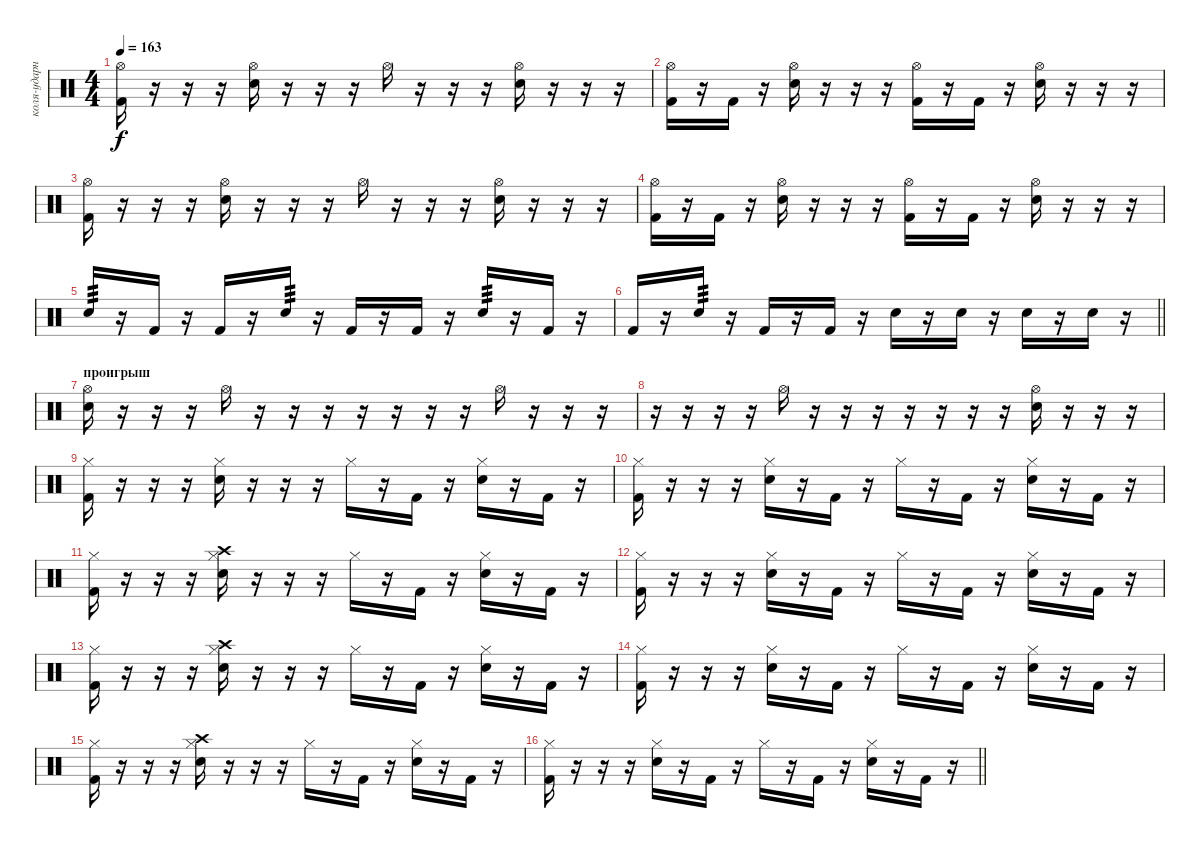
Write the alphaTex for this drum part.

\track ("коля-ударные" "коля-ударн") {instrument percussion}
\staff {score}
\articulation defaults
\ts (4 4)
\tempo 163
\clef neutral
\ks c
("Kick (hit) 2" "Hi-Hat (open)").16{dy f} r.16 r.16 r.16 ("Electric Snare (hit)" "Hi-Hat (open)").16 r.16 r.16 r.16 "Hi-Hat (open)".16 r.16 r.16 r.16 ("Electric Snare (hit)" "Hi-Hat (open)").16 r.16 r.16 r.16 |
("Kick (hit) 2" "Hi-Hat (open)").16 r.16 "Kick (hit) 2".16 r.16 ("Electric Snare (hit)" "Hi-Hat (open)").16 r.16 r.16 r.16 ("Kick (hit) 2" "Hi-Hat (open)").16 r.16 "Kick (hit) 2".16 r.16 ("Electric Snare (hit)" "Hi-Hat (open)").16 r.16 r.16 r.16 |
("Kick (hit) 2" "Hi-Hat (open)").16 r.16 r.16 r.16 ("Electric Snare (hit)" "Hi-Hat (open)").16 r.16 r.16 r.16 "Hi-Hat (open)".16 r.16 r.16 r.16 ("Electric Snare (hit)" "Hi-Hat (open)").16 r.16 r.16 r.16 |
("Kick (hit) 2" "Hi-Hat (open)").16 r.16 "Kick (hit) 2".16 r.16 ("Electric Snare (hit)" "Hi-Hat (open)").16 r.16 r.16 r.16 ("Kick (hit) 2" "Hi-Hat (open)").16 r.16 "Kick (hit) 2".16 r.16 ("Electric Snare (hit)" "Hi-Hat (open)").16 r.16 r.16 r.16 |
"Snare (hit) 2".16{tp 3} r.16 "Kick (hit) 2".16 r.16 "Kick (hit) 2".16 r.16 "Electric Snare (hit)".16{tp 3} r.16 "Kick (hit) 2".16 r.16 "Kick (hit) 2".16 r.16 "Snare (hit) 2".16{tp 3} r.16 "Kick (hit) 2".16 r.16 |
\barLineRight lightlight "Kick (hit) 2".16
r.16 "Electric Snare (hit)".16{tp 3} r.16 "Kick (hit) 2".16 r.16 "Kick (hit) 2".16 r.16 "Electric Snare (hit)".16 r.16 "Electric Snare (hit)".16 r.16 "Electric Snare (hit)".16 r.16 "Electric Snare (hit)".16 r.16 |
\section ("" "проигрыш")
("Electric Snare (hit)" "Hi-Hat (open)").16 r.16 r.16 r.16 "Hi-Hat (open)".16 r.16 r.16 r.16 r.16 r.16 r.16 r.16 "Hi-Hat (open)".16 r.16 r.16 r.16 |
r.16 r.16 r.16 r.16 "Hi-Hat (open)".16 r.16 r.16 r.16 r.16 r.16 r.16 r.16 ("Electric Snare (hit)" "Hi-Hat (open)").16 r.16 r.16 r.16 |
("Kick (hit) 2" "Hi-Hat (closed)").16 r.16 r.16 r.16 ("Electric Snare (hit)" "Hi-Hat (closed)").16 r.16 r.16 r.16 "Hi-Hat (closed)".16 r.16 "Kick (hit) 2".16 r.16 ("Electric Snare (hit)" "Hi-Hat (closed)").16 r.16 "Kick (hit) 2".16 r.16 |
("Kick (hit) 2" "Hi-Hat (closed)").16 r.16 r.16 r.16 ("Electric Snare (hit)" "Hi-Hat (closed)").16 r.16 "Kick (hit) 2".16 r.16 "Hi-Hat (closed)".16 r.16 "Kick (hit) 2".16 r.16 ("Electric Snare (hit)" "Hi-Hat (closed)").16 r.16 "Kick (hit) 2".16 r.16 |
("Kick (hit) 2" "Hi-Hat (closed)").16 r.16 r.16 r.16 ("Electric Snare (hit)" "Crash high (hit)" "Hi-Hat (closed)").16 r.16 r.16 r.16 "Hi-Hat (closed)".16 r.16 "Kick (hit) 2".16 r.16 ("Electric Snare (hit)" "Hi-Hat (closed)").16 r.16 "Kick (hit) 2".16 r.16 |
("Kick (hit) 2" "Hi-Hat (closed)").16 r.16 r.16 r.16 ("Electric Snare (hit)" "Hi-Hat (closed)").16 r.16 "Kick (hit) 2".16 r.16 "Hi-Hat (closed)".16 r.16 "Kick (hit) 2".16 r.16 ("Electric Snare (hit)" "Hi-Hat (closed)").16 r.16 "Kick (hit) 2".16 r.16 |
("Kick (hit) 2" "Hi-Hat (closed)").16 r.16 r.16 r.16 ("Electric Snare (hit)" "Crash high (hit)" "Hi-Hat (closed)").16 r.16 r.16 r.16 "Hi-Hat (closed)".16 r.16 "Kick (hit) 2".16 r.16 ("Electric Snare (hit)" "Hi-Hat (closed)").16 r.16 "Kick (hit) 2".16 r.16 |
("Kick (hit) 2" "Hi-Hat (closed)").16 r.16 r.16 r.16 ("Electric Snare (hit)" "Hi-Hat (closed)").16 r.16 "Kick (hit) 2".16 r.16 "Hi-Hat (closed)".16 r.16 "Kick (hit) 2".16 r.16 ("Electric Snare (hit)" "Hi-Hat (closed)").16 r.16 "Kick (hit) 2".16 r.16 |
("Kick (hit) 2" "Hi-Hat (closed)").16 r.16 r.16 r.16 ("Electric Snare (hit)" "Crash high (hit)" "Hi-Hat (closed)").16 r.16 r.16 r.16 "Hi-Hat (closed)".16 r.16 "Kick (hit) 2".16 r.16 ("Electric Snare (hit)" "Hi-Hat (closed)").16 r.16 "Kick (hit) 2".16 r.16 |
\barLineRight lightlight
("Kick (hit) 2" "Hi-Hat (closed)").16 r.16 r.16 r.16 ("Electric Snare (hit)" "Hi-Hat (closed)").16 r.16 "Kick (hit) 2".16 r.16 "Hi-Hat (closed)".16 r.16 "Kick (hit) 2".16 r.16 ("Electric Snare (hit)" "Hi-Hat (closed)").16 r.16 "Kick (hit) 2".16 r.16
